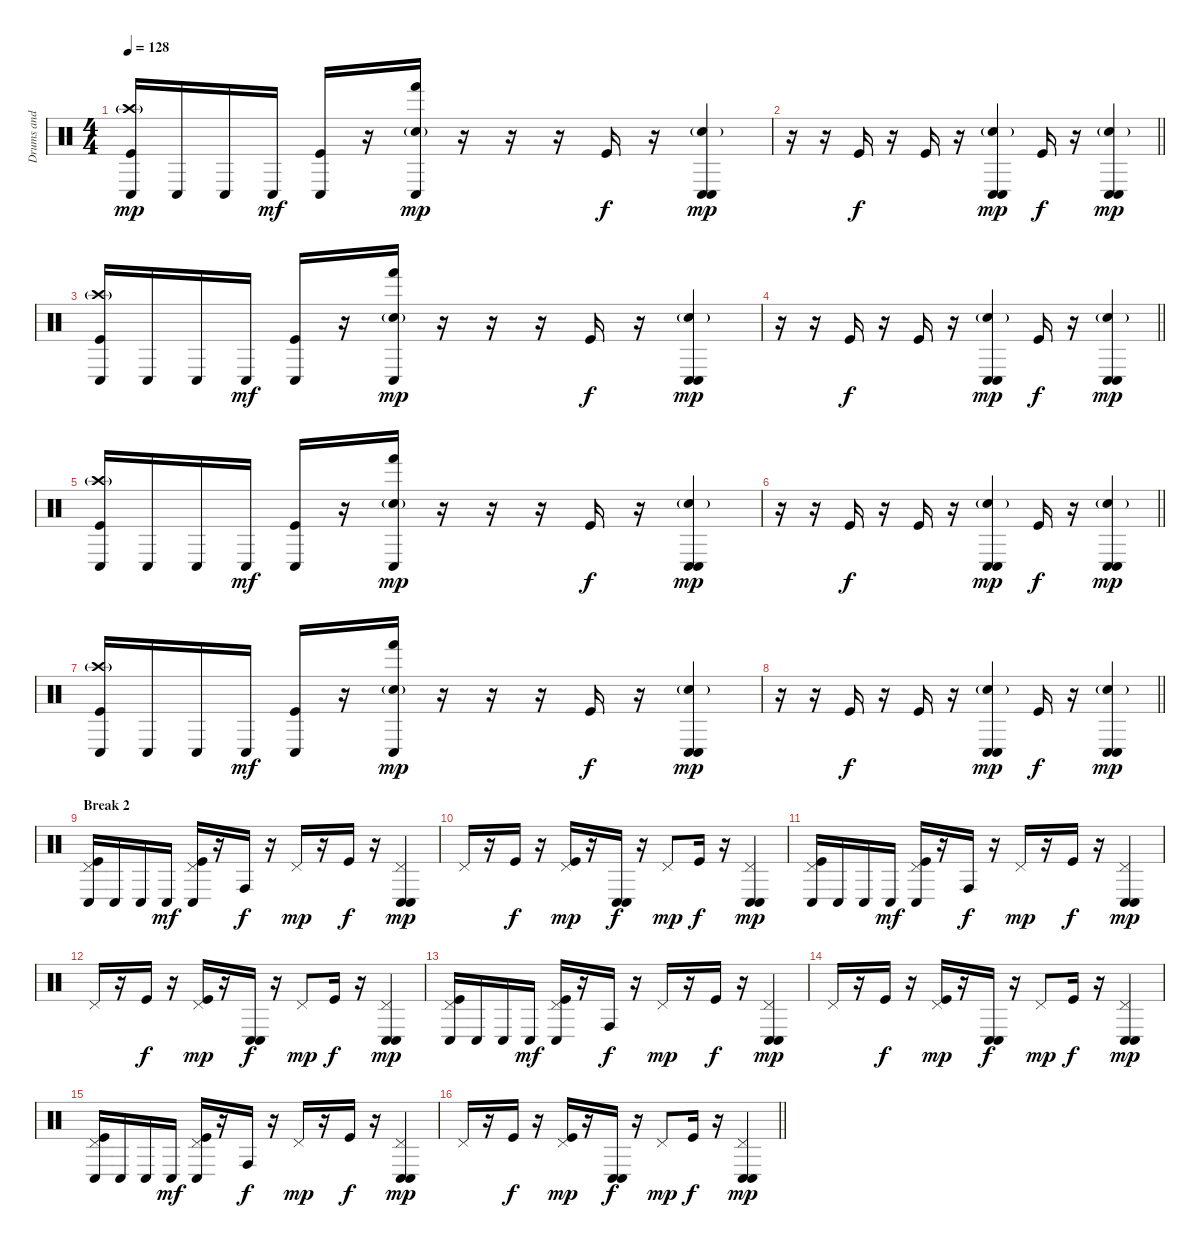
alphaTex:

\track ("Drums and Percussions" "Drums and ") {instrument percussion}
\staff {score}
\articulation defaults
\ts (4 4)
\tempo 128
\clef neutral
\ks c
("Crash high (hit)"{g} "Conga low (hit)" "Kick (hit)").16{dy mp} "Conga low (hit)".16 "Conga low (hit)".16 "Conga low (hit)".16{dy mf} ("Conga low (hit)" "Kick (hit)").16 r.16 ("Conga low (hit)" "Hand (hit)" "Electric Snare (hit)"{g}).16{dy mp} r.16 r.16 r.16 "Kick (hit)".16{dy f} r.16 ("Conga low (hit)" "Conga low (hit)" "Electric Snare (hit)"{g}).4{bd 120 dy mp} |
\barLineRight lightlight
r.16 r.16 "Kick (hit)".16{dy f} r.16 "Kick (hit)".16 r.16 ("Conga low (hit)" "Conga low (hit)" "Electric Snare (hit)"{g}).4{bd 120 dy mp} "Kick (hit)".16{dy f} r.16 ("Conga low (hit)" "Conga low (hit)" "Electric Snare (hit)"{g}).4{bd 120 dy mp} |
("Crash high (hit)"{g} "Conga low (hit)" "Kick (hit)").16 "Conga low (hit)".16 "Conga low (hit)".16 "Conga low (hit)".16{dy mf} ("Conga low (hit)" "Kick (hit)").16 r.16 ("Conga low (hit)" "Hand (hit)" "Electric Snare (hit)"{g}).16{dy mp} r.16 r.16 r.16 "Kick (hit)".16{dy f} r.16 ("Conga low (hit)" "Conga low (hit)" "Electric Snare (hit)"{g}).4{bd 120 dy mp} |
\barLineRight lightlight
r.16 r.16 "Kick (hit)".16{dy f} r.16 "Kick (hit)".16 r.16 ("Conga low (hit)" "Conga low (hit)" "Electric Snare (hit)"{g}).4{bd 120 dy mp} "Kick (hit)".16{dy f} r.16 ("Conga low (hit)" "Conga low (hit)" "Electric Snare (hit)"{g}).4{bd 120 dy mp} |
("Crash high (hit)"{g} "Conga low (hit)" "Kick (hit)").16 "Conga low (hit)".16 "Conga low (hit)".16 "Conga low (hit)".16{dy mf} ("Conga low (hit)" "Kick (hit)").16 r.16 ("Conga low (hit)" "Hand (hit)" "Electric Snare (hit)"{g}).16{dy mp} r.16 r.16 r.16 "Kick (hit)".16{dy f} r.16 ("Conga low (hit)" "Conga low (hit)" "Electric Snare (hit)"{g}).4{bd 120 dy mp} |
\barLineRight lightlight
r.16 r.16 "Kick (hit)".16{dy f} r.16 "Kick (hit)".16 r.16 ("Conga low (hit)" "Conga low (hit)" "Electric Snare (hit)"{g}).4{bd 120 dy mp} "Kick (hit)".16{dy f} r.16 ("Conga low (hit)" "Conga low (hit)" "Electric Snare (hit)"{g}).4{bd 120 dy mp} |
("Crash high (hit)"{g} "Conga low (hit)" "Kick (hit)").16 "Conga low (hit)".16 "Conga low (hit)".16 "Conga low (hit)".16{dy mf} ("Conga low (hit)" "Kick (hit)").16 r.16 ("Conga low (hit)" "Hand (hit)" "Electric Snare (hit)"{g}).16{dy mp} r.16 r.16 r.16 "Kick (hit)".16{dy f} r.16 ("Conga low (hit)" "Conga low (hit)" "Electric Snare (hit)"{g}).4{bd 120 dy mp} |
\barLineRight lightlight
r.16 r.16 "Kick (hit)".16{dy f} r.16 "Kick (hit)".16 r.16 ("Conga low (hit)" "Conga low (hit)" "Electric Snare (hit)"{g}).4{bd 120 dy mp} "Kick (hit)".16{dy f} r.16 ("Conga low (hit)" "Conga low (hit)" "Electric Snare (hit)"{g}).4{bd 120 dy mp} |
\section ("" "Break 2")
("Pedal Hi-Hat (hit)" "Conga low (hit)" "Kick (hit)").16 "Conga low (hit)".16 "Conga low (hit)".16 "Conga low (hit)".16{dy mf} ("Pedal Hi-Hat (hit)" "Conga low (hit)" "Kick (hit)").16 r.16 "Conga high (hit)".16{dy f} r.16 "Pedal Hi-Hat (hit)".16{dy mp} r.16 "Kick (hit)".16{dy f} r.16 ("Conga low (hit)" "Conga low (hit)" "Pedal Hi-Hat (hit)").4{bd 120 dy mp} |
"Pedal Hi-Hat (hit)".16 r.16 "Kick (hit)".16{dy f} r.16 ("Pedal Hi-Hat (hit)" "Kick (hit)").16{dy mp} r.16 ("Conga low (hit)" "Conga low (hit)").16{bd 120 dy f} r.16 "Pedal Hi-Hat (hit)".8{dy mp} "Kick (hit)".16{dy f} r.16 ("Conga low (hit)" "Conga low (hit)" "Pedal Hi-Hat (hit)").4{bd 120 dy mp} |
("Pedal Hi-Hat (hit)" "Conga low (hit)" "Kick (hit)").16 "Conga low (hit)".16 "Conga low (hit)".16 "Conga low (hit)".16{dy mf} ("Pedal Hi-Hat (hit)" "Conga low (hit)" "Kick (hit)").16 r.16 "Conga high (hit)".16{dy f} r.16 "Pedal Hi-Hat (hit)".16{dy mp} r.16 "Kick (hit)".16{dy f} r.16 ("Conga low (hit)" "Conga low (hit)" "Pedal Hi-Hat (hit)").4{bd 120 dy mp} |
"Pedal Hi-Hat (hit)".16 r.16 "Kick (hit)".16{dy f} r.16 ("Pedal Hi-Hat (hit)" "Kick (hit)").16{dy mp} r.16 ("Conga low (hit)" "Conga low (hit)").16{bd 120 dy f} r.16 "Pedal Hi-Hat (hit)".8{dy mp} "Kick (hit)".16{dy f} r.16 ("Conga low (hit)" "Conga low (hit)" "Pedal Hi-Hat (hit)").4{bd 120 dy mp} |
("Pedal Hi-Hat (hit)" "Conga low (hit)" "Kick (hit)").16 "Conga low (hit)".16 "Conga low (hit)".16 "Conga low (hit)".16{dy mf} ("Pedal Hi-Hat (hit)" "Conga low (hit)" "Kick (hit)").16 r.16 "Conga high (hit)".16{dy f} r.16 "Pedal Hi-Hat (hit)".16{dy mp} r.16 "Kick (hit)".16{dy f} r.16 ("Conga low (hit)" "Conga low (hit)" "Pedal Hi-Hat (hit)").4{bd 120 dy mp} |
"Pedal Hi-Hat (hit)".16 r.16 "Kick (hit)".16{dy f} r.16 ("Pedal Hi-Hat (hit)" "Kick (hit)").16{dy mp} r.16 ("Conga low (hit)" "Conga low (hit)").16{bd 120 dy f} r.16 "Pedal Hi-Hat (hit)".8{dy mp} "Kick (hit)".16{dy f} r.16 ("Conga low (hit)" "Conga low (hit)" "Pedal Hi-Hat (hit)").4{bd 120 dy mp} |
("Pedal Hi-Hat (hit)" "Conga low (hit)" "Kick (hit)").16 "Conga low (hit)".16 "Conga low (hit)".16 "Conga low (hit)".16{dy mf} ("Pedal Hi-Hat (hit)" "Conga low (hit)" "Kick (hit)").16 r.16 "Conga high (hit)".16{dy f} r.16 "Pedal Hi-Hat (hit)".16{dy mp} r.16 "Kick (hit)".16{dy f} r.16 ("Conga low (hit)" "Conga low (hit)" "Pedal Hi-Hat (hit)").4{bd 120 dy mp} |
\barLineRight lightlight "Pedal Hi-Hat (hit)".16
r.16 "Kick (hit)".16{dy f} r.16 ("Pedal Hi-Hat (hit)" "Kick (hit)").16{dy mp} r.16 ("Conga low (hit)" "Conga low (hit)").16{bd 120 dy f} r.16 "Pedal Hi-Hat (hit)".8{dy mp} "Kick (hit)".16{dy f} r.16 ("Conga low (hit)" "Conga low (hit)" "Pedal Hi-Hat (hit)").4{bd 120 dy mp}
